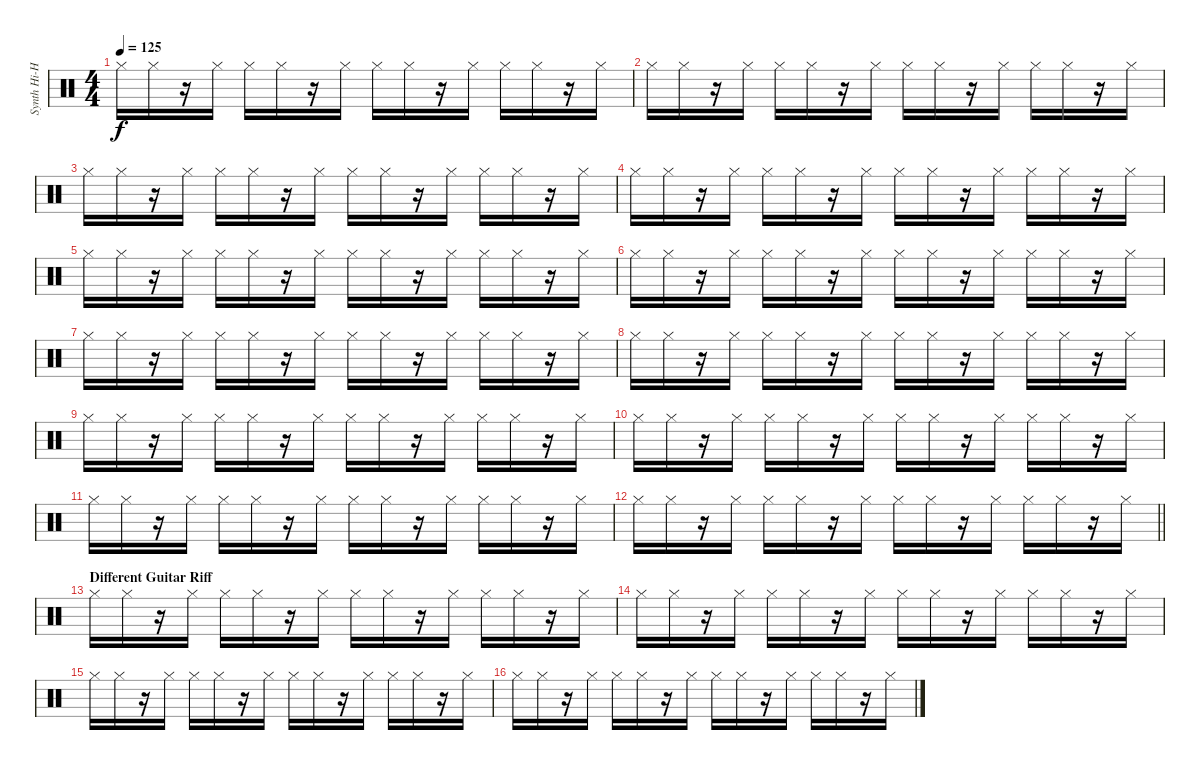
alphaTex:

\track ("Synth Hi-Hat (Gillian Gilbert)" "Synth Hi-H") {instrument percussion}
\staff {score}
\articulation defaults
\ts (4 4)
\tempo 125
\clef neutral
\ks c "Hi-Hat (closed)".16{dy f} "Hi-Hat (closed)".16
r.16 "Hi-Hat (closed)".16 "Hi-Hat (closed)".16 "Hi-Hat (closed)".16 r.16 "Hi-Hat (closed)".16 "Hi-Hat (closed)".16 "Hi-Hat (closed)".16 r.16 "Hi-Hat (closed)".16 "Hi-Hat (closed)".16 "Hi-Hat (closed)".16 r.16 "Hi-Hat (closed)".16 |
"Hi-Hat (closed)".16 "Hi-Hat (closed)".16 r.16 "Hi-Hat (closed)".16 "Hi-Hat (closed)".16 "Hi-Hat (closed)".16 r.16 "Hi-Hat (closed)".16 "Hi-Hat (closed)".16 "Hi-Hat (closed)".16 r.16 "Hi-Hat (closed)".16 "Hi-Hat (closed)".16 "Hi-Hat (closed)".16 r.16 "Hi-Hat (closed)".16 |
"Hi-Hat (closed)".16 "Hi-Hat (closed)".16 r.16 "Hi-Hat (closed)".16 "Hi-Hat (closed)".16 "Hi-Hat (closed)".16 r.16 "Hi-Hat (closed)".16 "Hi-Hat (closed)".16 "Hi-Hat (closed)".16 r.16 "Hi-Hat (closed)".16 "Hi-Hat (closed)".16 "Hi-Hat (closed)".16 r.16 "Hi-Hat (closed)".16 |
"Hi-Hat (closed)".16 "Hi-Hat (closed)".16 r.16 "Hi-Hat (closed)".16 "Hi-Hat (closed)".16 "Hi-Hat (closed)".16 r.16 "Hi-Hat (closed)".16 "Hi-Hat (closed)".16 "Hi-Hat (closed)".16 r.16 "Hi-Hat (closed)".16 "Hi-Hat (closed)".16 "Hi-Hat (closed)".16 r.16 "Hi-Hat (closed)".16 |
"Hi-Hat (closed)".16 "Hi-Hat (closed)".16 r.16 "Hi-Hat (closed)".16 "Hi-Hat (closed)".16 "Hi-Hat (closed)".16 r.16 "Hi-Hat (closed)".16 "Hi-Hat (closed)".16 "Hi-Hat (closed)".16 r.16 "Hi-Hat (closed)".16 "Hi-Hat (closed)".16 "Hi-Hat (closed)".16 r.16 "Hi-Hat (closed)".16 |
"Hi-Hat (closed)".16 "Hi-Hat (closed)".16 r.16 "Hi-Hat (closed)".16 "Hi-Hat (closed)".16 "Hi-Hat (closed)".16 r.16 "Hi-Hat (closed)".16 "Hi-Hat (closed)".16 "Hi-Hat (closed)".16 r.16 "Hi-Hat (closed)".16 "Hi-Hat (closed)".16 "Hi-Hat (closed)".16 r.16 "Hi-Hat (closed)".16 |
"Hi-Hat (closed)".16 "Hi-Hat (closed)".16 r.16 "Hi-Hat (closed)".16 "Hi-Hat (closed)".16 "Hi-Hat (closed)".16 r.16 "Hi-Hat (closed)".16 "Hi-Hat (closed)".16 "Hi-Hat (closed)".16 r.16 "Hi-Hat (closed)".16 "Hi-Hat (closed)".16 "Hi-Hat (closed)".16 r.16 "Hi-Hat (closed)".16 |
"Hi-Hat (closed)".16 "Hi-Hat (closed)".16 r.16 "Hi-Hat (closed)".16 "Hi-Hat (closed)".16 "Hi-Hat (closed)".16 r.16 "Hi-Hat (closed)".16 "Hi-Hat (closed)".16 "Hi-Hat (closed)".16 r.16 "Hi-Hat (closed)".16 "Hi-Hat (closed)".16 "Hi-Hat (closed)".16 r.16 "Hi-Hat (closed)".16 |
"Hi-Hat (closed)".16 "Hi-Hat (closed)".16 r.16 "Hi-Hat (closed)".16 "Hi-Hat (closed)".16 "Hi-Hat (closed)".16 r.16 "Hi-Hat (closed)".16 "Hi-Hat (closed)".16 "Hi-Hat (closed)".16 r.16 "Hi-Hat (closed)".16 "Hi-Hat (closed)".16 "Hi-Hat (closed)".16 r.16 "Hi-Hat (closed)".16 |
"Hi-Hat (closed)".16 "Hi-Hat (closed)".16 r.16 "Hi-Hat (closed)".16 "Hi-Hat (closed)".16 "Hi-Hat (closed)".16 r.16 "Hi-Hat (closed)".16 "Hi-Hat (closed)".16 "Hi-Hat (closed)".16 r.16 "Hi-Hat (closed)".16 "Hi-Hat (closed)".16 "Hi-Hat (closed)".16 r.16 "Hi-Hat (closed)".16 |
"Hi-Hat (closed)".16 "Hi-Hat (closed)".16 r.16 "Hi-Hat (closed)".16 "Hi-Hat (closed)".16 "Hi-Hat (closed)".16 r.16 "Hi-Hat (closed)".16 "Hi-Hat (closed)".16 "Hi-Hat (closed)".16 r.16 "Hi-Hat (closed)".16 "Hi-Hat (closed)".16 "Hi-Hat (closed)".16 r.16 "Hi-Hat (closed)".16 |
\barLineRight lightlight "Hi-Hat (closed)".16 "Hi-Hat (closed)".16
r.16 "Hi-Hat (closed)".16 "Hi-Hat (closed)".16 "Hi-Hat (closed)".16 r.16 "Hi-Hat (closed)".16 "Hi-Hat (closed)".16 "Hi-Hat (closed)".16 r.16 "Hi-Hat (closed)".16 "Hi-Hat (closed)".16 "Hi-Hat (closed)".16 r.16 "Hi-Hat (closed)".16 |
\section ("" "Different Guitar Riff")
"Hi-Hat (closed)".16 "Hi-Hat (closed)".16 r.16 "Hi-Hat (closed)".16 "Hi-Hat (closed)".16 "Hi-Hat (closed)".16 r.16 "Hi-Hat (closed)".16 "Hi-Hat (closed)".16 "Hi-Hat (closed)".16 r.16 "Hi-Hat (closed)".16 "Hi-Hat (closed)".16 "Hi-Hat (closed)".16 r.16 "Hi-Hat (closed)".16 |
"Hi-Hat (closed)".16 "Hi-Hat (closed)".16 r.16 "Hi-Hat (closed)".16 "Hi-Hat (closed)".16 "Hi-Hat (closed)".16 r.16 "Hi-Hat (closed)".16 "Hi-Hat (closed)".16 "Hi-Hat (closed)".16 r.16 "Hi-Hat (closed)".16 "Hi-Hat (closed)".16 "Hi-Hat (closed)".16 r.16 "Hi-Hat (closed)".16 |
"Hi-Hat (closed)".16 "Hi-Hat (closed)".16 r.16 "Hi-Hat (closed)".16 "Hi-Hat (closed)".16 "Hi-Hat (closed)".16 r.16 "Hi-Hat (closed)".16 "Hi-Hat (closed)".16 "Hi-Hat (closed)".16 r.16 "Hi-Hat (closed)".16 "Hi-Hat (closed)".16 "Hi-Hat (closed)".16 r.16 "Hi-Hat (closed)".16 |
"Hi-Hat (closed)".16 "Hi-Hat (closed)".16 r.16 "Hi-Hat (closed)".16 "Hi-Hat (closed)".16 "Hi-Hat (closed)".16 r.16 "Hi-Hat (closed)".16 "Hi-Hat (closed)".16 "Hi-Hat (closed)".16 r.16 "Hi-Hat (closed)".16 "Hi-Hat (closed)".16 "Hi-Hat (closed)".16 r.16 "Hi-Hat (closed)".16
